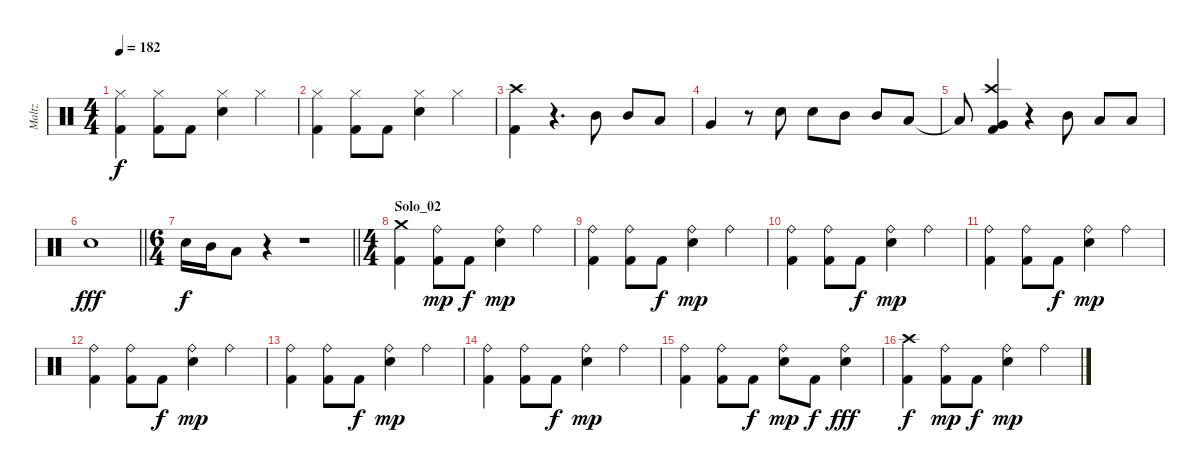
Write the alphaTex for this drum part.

\track ("Maltz" "Maltz") {instrument percussion}
\staff {score}
\articulation defaults
\ts (4 4)
\tempo 182
\clef neutral
\ks c
("Hi-Hat (closed)" "Kick (hit) 2").4{dy f} ("Hi-Hat (closed)" "Kick (hit) 2").8 "Kick (hit) 2".8 ("Hi-Hat (closed)" "Electric Snare (hit)").4 "Hi-Hat (closed)".4 |
("Hi-Hat (closed)" "Kick (hit) 2").4 ("Hi-Hat (closed)" "Kick (hit) 2").8 "Kick (hit) 2".8 ("Hi-Hat (closed)" "Electric Snare (hit)").4 "Hi-Hat (closed)".4 |
("Crash high (hit)" "Kick (hit) 2").4 r.4{d} "Mid Tom (hit)".8 "Mid Tom (hit)".8 "Low Tom (hit)".8 |
"Very Low Tom (hit)".4 r.8 "Electric Snare (hit)".8 "Electric Snare (hit)".8 "Mid Tom (hit)".8 "Mid Tom (hit)".8 "Low Tom (hit)".8 |
"Low Floor Tom (hit)"{t}.8 ("Crash high (hit)" "Very Low Tom (hit)" "Kick (hit) 2").4 r.4 "Mid Tom (hit)".8 "Low Tom (hit)".8 "Low Floor Tom (hit)".8 |
\barLineRight lightlight "Electric Snare (hit)".1{dy fff}
|
\ts (6 4)
\barLineRight lightlight "Electric Snare (hit)".16{dy f} "Mid Tom (hit)".16 "Low Tom (hit)".8
r.4 r.1 |
\ts (4 4)
\section ("" "Solo_02")
("Crash medium (hit)" "Kick (hit) 2").4 ("Ride (bell)" "Kick (hit) 2").8{dy mp} "Kick (hit) 2".8{dy f} ("Ride (bell)" "Electric Snare (hit)").4{dy mp} "Ride (bell)".4 |
("Ride (bell)" "Kick (hit) 2").4 ("Ride (bell)" "Kick (hit) 2").8 "Kick (hit) 2".8{dy f} ("Ride (bell)" "Electric Snare (hit)").4{dy mp} "Ride (bell)".4 |
("Ride (bell)" "Kick (hit) 2").4 ("Ride (bell)" "Kick (hit) 2").8 "Kick (hit) 2".8{dy f} ("Ride (bell)" "Electric Snare (hit)").4{dy mp} "Ride (bell)".4 |
("Ride (bell)" "Kick (hit) 2").4 ("Ride (bell)" "Kick (hit) 2").8 "Kick (hit) 2".8{dy f} ("Ride (bell)" "Electric Snare (hit)").4{dy mp} "Ride (bell)".4 |
("Ride (bell)" "Kick (hit) 2").4 ("Ride (bell)" "Kick (hit) 2").8 "Kick (hit) 2".8{dy f} ("Ride (bell)" "Electric Snare (hit)").4{dy mp} "Ride (bell)".4 |
("Ride (bell)" "Kick (hit) 2").4 ("Ride (bell)" "Kick (hit) 2").8 "Kick (hit) 2".8{dy f} ("Ride (bell)" "Electric Snare (hit)").4{dy mp} "Ride (bell)".4 |
("Ride (bell)" "Kick (hit) 2").4 ("Ride (bell)" "Kick (hit) 2").8 "Kick (hit) 2".8{dy f} ("Ride (bell)" "Electric Snare (hit)").4{dy mp} "Ride (bell)".4 |
("Ride (bell)" "Kick (hit) 2").4 ("Ride (bell)" "Kick (hit) 2").8 "Kick (hit) 2".8{dy f} ("Ride (bell)" "Electric Snare (hit)").8{dy mp} "Kick (hit) 2".8{dy f} ("Ride (bell)" "Electric Snare (hit)").4{dy fff} |
("Crash high (hit)" "Kick (hit) 2").4{dy f} ("Ride (bell)" "Kick (hit) 2").8{dy mp} "Kick (hit) 2".8{dy f} ("Ride (bell)" "Electric Snare (hit)").4{dy mp} "Ride (bell)".4
